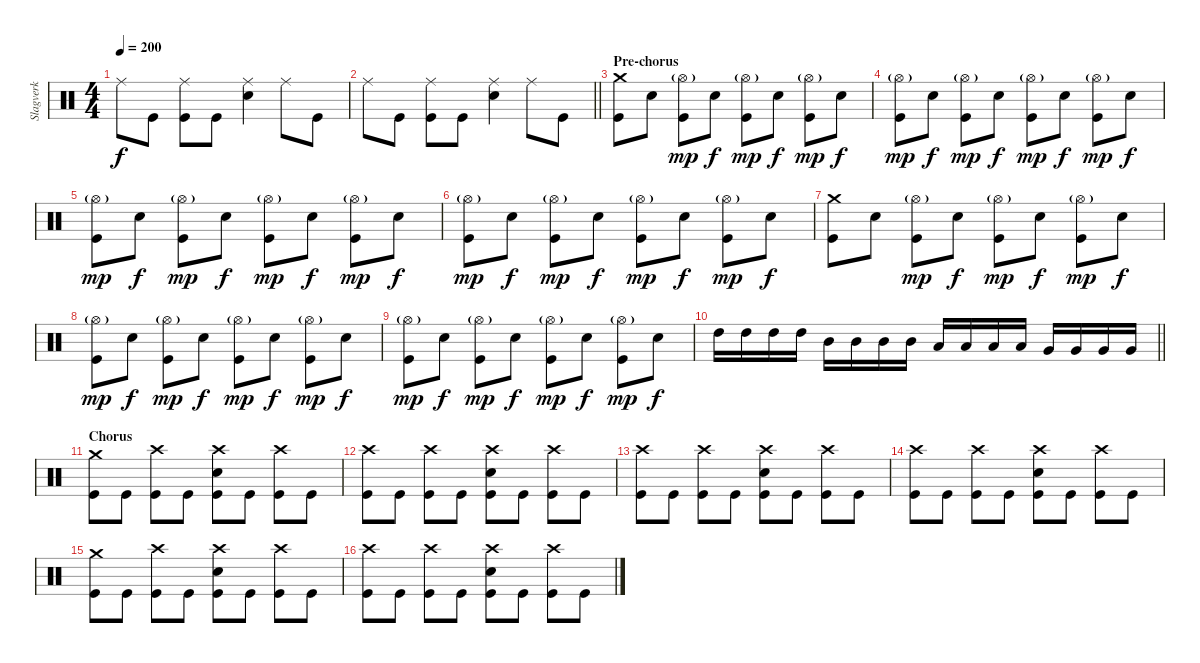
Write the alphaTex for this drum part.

\track ("Slagverk" "Slagverk") {instrument percussion}
\staff {score}
\articulation defaults
\ts (4 4)
\tempo 200
\clef neutral
\ks c "Ride (middle)".8{dy f} "Kick (hit)".8
("Ride (middle)" "Kick (hit)").8 "Kick (hit)".8 ("Ride (middle)" "Snare (hit) 2").4 "Ride (middle)".8 "Kick (hit)".8 |
\barLineRight lightlight "Ride (middle)".8 "Kick (hit)".8
("Ride (middle)" "Kick (hit)").8 "Kick (hit)".8 ("Ride (middle)" "Snare (hit) 2").4 "Ride (middle)".8 "Kick (hit)".8 |
\section ("" "Pre-chorus")
("Crash medium (hit)" "Kick (hit)").8 "Snare (hit) 2".8 ("Hi-Hat (open)"{g} "Kick (hit)").8{dy mp} "Snare (hit) 2".8{dy f} ("Hi-Hat (open)"{g} "Kick (hit)").8{dy mp} "Snare (hit) 2".8{dy f} ("Hi-Hat (open)"{g} "Kick (hit)").8{dy mp} "Snare (hit) 2".8{dy f} |
("Hi-Hat (open)"{g} "Kick (hit)").8{dy mp} "Snare (hit) 2".8{dy f} ("Hi-Hat (open)"{g} "Kick (hit)").8{dy mp} "Snare (hit) 2".8{dy f} ("Hi-Hat (open)"{g} "Kick (hit)").8{dy mp} "Snare (hit) 2".8{dy f} ("Hi-Hat (open)"{g} "Kick (hit)").8{dy mp} "Snare (hit) 2".8{dy f} |
("Hi-Hat (open)"{g} "Kick (hit)").8{dy mp} "Snare (hit) 2".8{dy f} ("Hi-Hat (open)"{g} "Kick (hit)").8{dy mp} "Snare (hit) 2".8{dy f} ("Hi-Hat (open)"{g} "Kick (hit)").8{dy mp} "Snare (hit) 2".8{dy f} ("Hi-Hat (open)"{g} "Kick (hit)").8{dy mp} "Snare (hit) 2".8{dy f} |
("Hi-Hat (open)"{g} "Kick (hit)").8{dy mp} "Snare (hit) 2".8{dy f} ("Hi-Hat (open)"{g} "Kick (hit)").8{dy mp} "Snare (hit) 2".8{dy f} ("Hi-Hat (open)"{g} "Kick (hit)").8{dy mp} "Snare (hit) 2".8{dy f} ("Hi-Hat (open)"{g} "Kick (hit)").8{dy mp} "Snare (hit) 2".8{dy f} |
("Crash medium (hit)" "Kick (hit)").8 "Snare (hit) 2".8 ("Hi-Hat (open)"{g} "Kick (hit)").8{dy mp} "Snare (hit) 2".8{dy f} ("Hi-Hat (open)"{g} "Kick (hit)").8{dy mp} "Snare (hit) 2".8{dy f} ("Hi-Hat (open)"{g} "Kick (hit)").8{dy mp} "Snare (hit) 2".8{dy f} |
("Hi-Hat (open)"{g} "Kick (hit)").8{dy mp} "Snare (hit) 2".8{dy f} ("Hi-Hat (open)"{g} "Kick (hit)").8{dy mp} "Snare (hit) 2".8{dy f} ("Hi-Hat (open)"{g} "Kick (hit)").8{dy mp} "Snare (hit) 2".8{dy f} ("Hi-Hat (open)"{g} "Kick (hit)").8{dy mp} "Snare (hit) 2".8{dy f} |
("Hi-Hat (open)"{g} "Kick (hit)").8{dy mp} "Snare (hit) 2".8{dy f} ("Hi-Hat (open)"{g} "Kick (hit)").8{dy mp} "Snare (hit) 2".8{dy f} ("Hi-Hat (open)"{g} "Kick (hit)").8{dy mp} "Snare (hit) 2".8{dy f} ("Hi-Hat (open)"{g} "Kick (hit)").8{dy mp} "Snare (hit) 2".8{dy f} |
\barLineRight lightlight "High Tom (hit)".16 "High Tom (hit)".16 "High Tom (hit)".16 "High Tom (hit)".16 "Mid Tom (hit)".16 "Mid Tom (hit)".16 "Mid Tom (hit)".16 "Mid Tom (hit)".16 "Low Tom (hit)".16 "Low Tom (hit)".16 "Low Tom (hit)".16 "Low Tom (hit)".16 "Very Low Tom (hit)".16 "Very Low Tom (hit)".16 "Very Low Tom (hit)".16 "Very Low Tom (hit)".16
|
\section ("" "Chorus")
("Crash medium (hit)" "Kick (hit)").8 "Kick (hit)".8 ("Crash high (hit)" "Kick (hit)").8 "Kick (hit)".8 ("Crash high (hit)" "Snare (hit) 2" "Kick (hit)").8 "Kick (hit)".8 ("Crash high (hit)" "Kick (hit)").8 "Kick (hit)".8 |
("Crash high (hit)" "Kick (hit)").8 "Kick (hit)".8 ("Crash high (hit)" "Kick (hit)").8 "Kick (hit)".8 ("Crash high (hit)" "Snare (hit) 2" "Kick (hit)").8 "Kick (hit)".8 ("Crash high (hit)" "Kick (hit)").8 "Kick (hit)".8 |
("Crash high (hit)" "Kick (hit)").8 "Kick (hit)".8 ("Crash high (hit)" "Kick (hit)").8 "Kick (hit)".8 ("Crash high (hit)" "Snare (hit) 2" "Kick (hit)").8 "Kick (hit)".8 ("Crash high (hit)" "Kick (hit)").8 "Kick (hit)".8 |
("Crash high (hit)" "Kick (hit)").8 "Kick (hit)".8 ("Crash high (hit)" "Kick (hit)").8 "Kick (hit)".8 ("Crash high (hit)" "Snare (hit) 2" "Kick (hit)").8 "Kick (hit)".8 ("Crash high (hit)" "Kick (hit)").8 "Kick (hit)".8 |
("Crash medium (hit)" "Kick (hit)").8 "Kick (hit)".8 ("Crash high (hit)" "Kick (hit)").8 "Kick (hit)".8 ("Crash high (hit)" "Snare (hit) 2" "Kick (hit)").8 "Kick (hit)".8 ("Crash high (hit)" "Kick (hit)").8 "Kick (hit)".8 |
("Crash high (hit)" "Kick (hit)").8 "Kick (hit)".8 ("Crash high (hit)" "Kick (hit)").8 "Kick (hit)".8 ("Crash high (hit)" "Snare (hit) 2" "Kick (hit)").8 "Kick (hit)".8 ("Crash high (hit)" "Kick (hit)").8 "Kick (hit)".8
